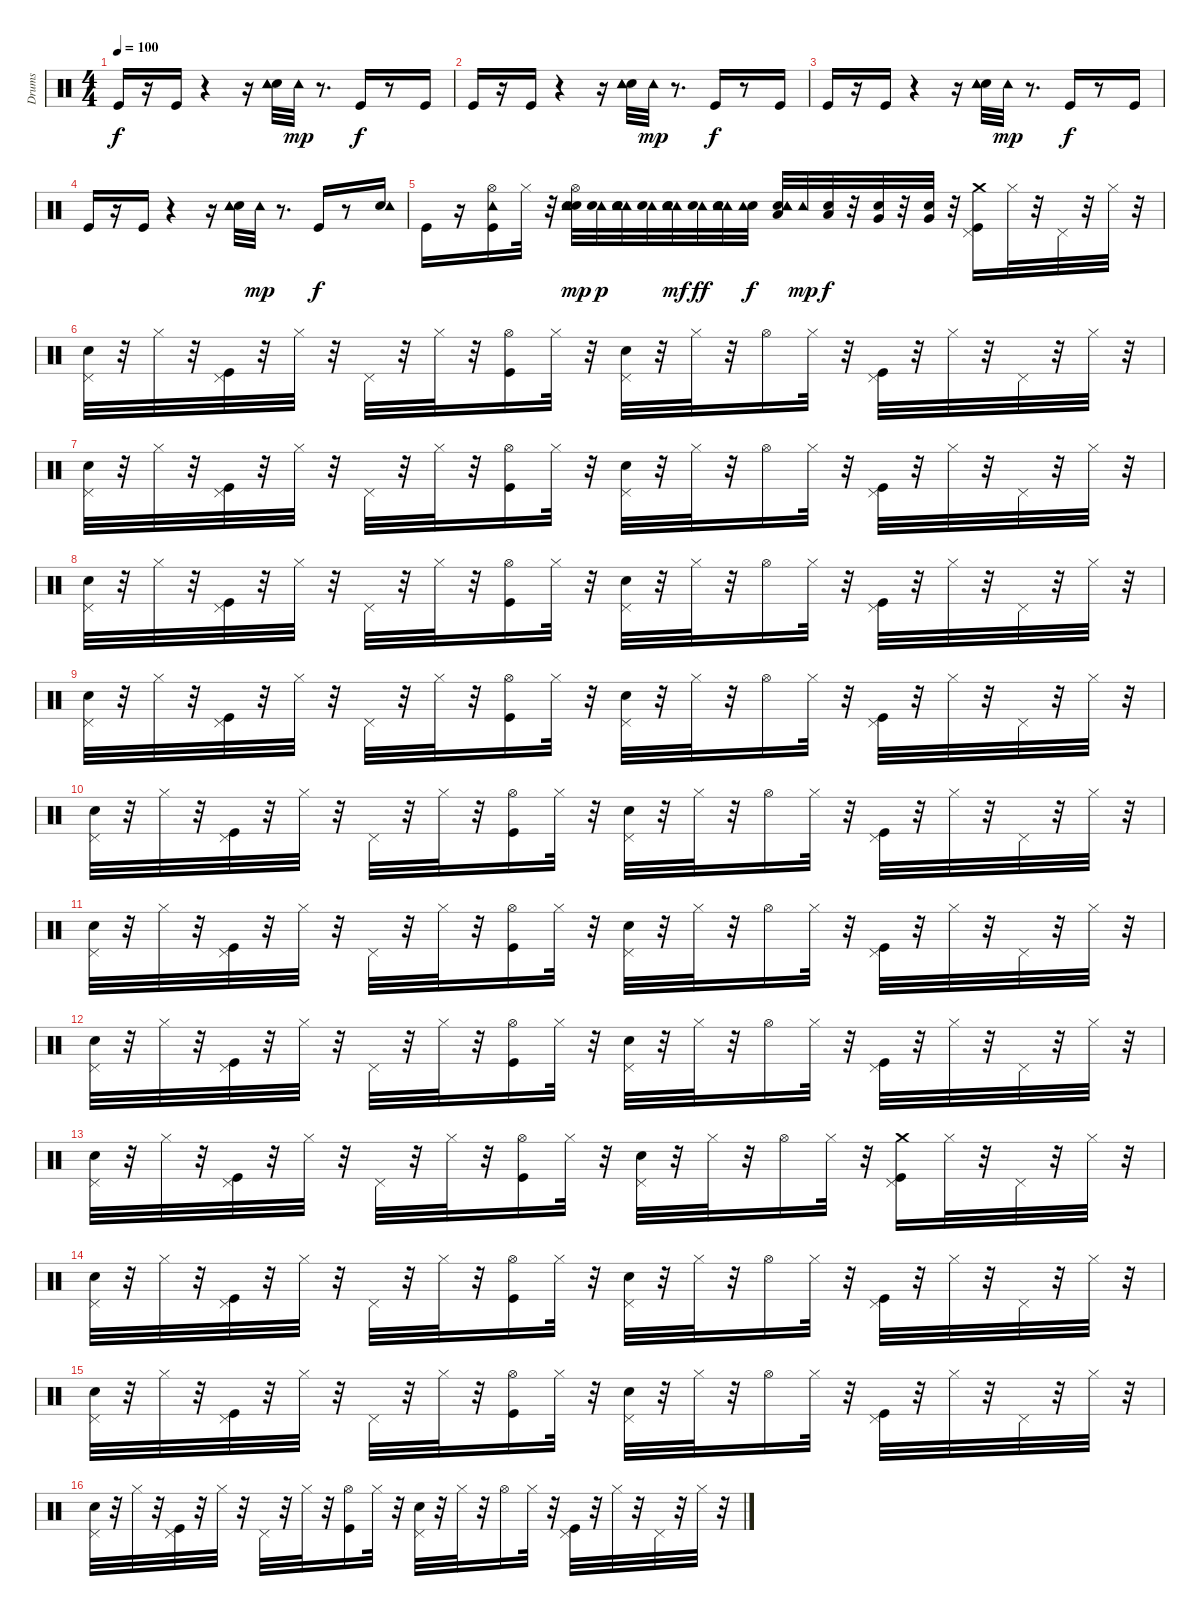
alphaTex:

\track ("Drums" "Drums") {instrument percussion}
\staff {score}
\articulation defaults
\ts (4 4)
\tempo 100
\clef neutral
\ks c "Kick (hit)".16{dy f}
r.16 "Kick (hit)".16 r.4 r.16 ("Metronome (bell)" "Tambourine (hit)" "Tambourine (hit)").32 "Tambourine (hit)".32{dy mp} r.8{d} "Kick (hit)".16{dy f} r.8 "Kick (hit)".16 |
"Kick (hit)".16 r.16 "Kick (hit)".16 r.4 r.16 ("Metronome (bell)" "Tambourine (hit)" "Tambourine (hit)").32 "Tambourine (hit)".32{dy mp} r.8{d} "Kick (hit)".16{dy f} r.8 "Kick (hit)".16 |
"Kick (hit)".16 r.16 "Kick (hit)".16 r.4 r.16 ("Metronome (bell)" "Tambourine (hit)" "Tambourine (hit)").32 "Tambourine (hit)".32{dy mp} r.8{d} "Kick (hit)".16{dy f} r.8 "Kick (hit)".16 |
"Kick (hit)".16 r.16 "Kick (hit)".16 r.4 r.16 ("Metronome (bell)" "Tambourine (hit)" "Tambourine (hit)").32 "Tambourine (hit)".32{dy mp} r.8{d} "Kick (hit)".16{dy f} r.8 ("Metronome (bell)" "Tambourine (hit)").16 |
"Kick (hit)".16 r.16 ("Hi-Hat (open)" "Kick (hit)" "Tambourine (hit)").16 "Hi-Hat (closed)".32 r.32 ("Snare (hit) 2" "Tambourine (hit)" "Hi-Hat (open)" "Tambourine (hit)" "Snare (hit) 2").32{dy mp} ("Tambourine (hit)" "Snare (hit) 2").32{dy p} ("Tambourine (hit)" "Snare (hit) 2" "Tambourine (hit)" "Snare (hit) 2").32 ("Tambourine (hit)" "Snare (hit) 2").32 ("Tambourine (hit)" "Snare (hit) 2" "Tambourine (hit)" "Snare (hit) 2").32{dy mf} ("Tambourine (hit)" "Snare (hit) 2").32{dy ff} ("Tambourine (hit)" "Snare (hit) 2" "Snare (hit) 2" "Tambourine (hit)").32 ("Snare (hit) 2" "Tambourine (hit)").32{dy f} ("Metronome (bell)" "Tambourine (hit)" "Low Tom (hit)" "Tambourine (hit)").32 "Tambourine (hit)".32{dy mp} ("Metronome (bell)" "Low Tom (hit)").32{dy f} r.32 ("Snare (hit) 2" "Very Low Tom (hit)").32 r.32 ("Very Low Tom (hit)" "Snare (hit) 2").32 r.32 ("Pedal Hi-Hat (hit)" "Kick (hit)" "Crash medium (hit)").16 "Hi-Hat (closed)".32 r.32 "Pedal Hi-Hat (hit)".32 r.32 "Hi-Hat (closed)".32 r.32 |
("Metronome (bell)" "Pedal Hi-Hat (hit)").32 r.32 "Hi-Hat (closed)".32 r.32 ("Kick (hit)" "Pedal Hi-Hat (hit)").32 r.32 "Hi-Hat (closed)".32 r.32 "Pedal Hi-Hat (hit)".32 r.32 "Hi-Hat (closed)".32 r.32 ("Kick (hit)" "Hi-Hat (open)").16 "Hi-Hat (closed)".32 r.32 ("Metronome (bell)" "Pedal Hi-Hat (hit)").32 r.32 "Hi-Hat (closed)".32 r.32 "Hi-Hat (open)".16 "Hi-Hat (closed)".32 r.32 ("Pedal Hi-Hat (hit)" "Kick (hit)").32 r.32 "Hi-Hat (closed)".32 r.32 "Pedal Hi-Hat (hit)".32 r.32 "Hi-Hat (closed)".32 r.32 |
("Metronome (bell)" "Pedal Hi-Hat (hit)").32 r.32 "Hi-Hat (closed)".32 r.32 ("Pedal Hi-Hat (hit)" "Kick (hit)").32 r.32 "Hi-Hat (closed)".32 r.32 "Pedal Hi-Hat (hit)".32 r.32 "Hi-Hat (closed)".32 r.32 ("Kick (hit)" "Hi-Hat (open)").16 "Hi-Hat (closed)".32 r.32 ("Metronome (bell)" "Pedal Hi-Hat (hit)").32 r.32 "Hi-Hat (closed)".32 r.32 "Hi-Hat (open)".16 "Hi-Hat (closed)".32 r.32 ("Pedal Hi-Hat (hit)" "Kick (hit)").32 r.32 "Hi-Hat (closed)".32 r.32 "Pedal Hi-Hat (hit)".32 r.32 "Hi-Hat (closed)".32 r.32 |
("Metronome (bell)" "Pedal Hi-Hat (hit)").32 r.32 "Hi-Hat (closed)".32 r.32 ("Kick (hit)" "Pedal Hi-Hat (hit)").32 r.32 "Hi-Hat (closed)".32 r.32 "Pedal Hi-Hat (hit)".32 r.32 "Hi-Hat (closed)".32 r.32 ("Kick (hit)" "Hi-Hat (open)").16 "Hi-Hat (closed)".32 r.32 ("Pedal Hi-Hat (hit)" "Metronome (bell)").32 r.32 "Hi-Hat (closed)".32 r.32 "Hi-Hat (open)".16 "Hi-Hat (closed)".32 r.32 ("Pedal Hi-Hat (hit)" "Kick (hit)").32 r.32 "Hi-Hat (closed)".32 r.32 "Pedal Hi-Hat (hit)".32 r.32 "Hi-Hat (closed)".32 r.32 |
("Pedal Hi-Hat (hit)" "Metronome (bell)").32 r.32 "Hi-Hat (closed)".32 r.32 ("Kick (hit)" "Pedal Hi-Hat (hit)").32 r.32 "Hi-Hat (closed)".32 r.32 "Pedal Hi-Hat (hit)".32 r.32 "Hi-Hat (closed)".32 r.32 ("Hi-Hat (open)" "Kick (hit)").16 "Hi-Hat (closed)".32 r.32 ("Pedal Hi-Hat (hit)" "Metronome (bell)").32 r.32 "Hi-Hat (closed)".32 r.32 "Hi-Hat (open)".16 "Hi-Hat (closed)".32 r.32 ("Pedal Hi-Hat (hit)" "Kick (hit)").32 r.32 "Hi-Hat (closed)".32 r.32 "Pedal Hi-Hat (hit)".32 r.32 "Hi-Hat (closed)".32 r.32 |
("Metronome (bell)" "Pedal Hi-Hat (hit)").32 r.32 "Hi-Hat (closed)".32 r.32 ("Kick (hit)" "Pedal Hi-Hat (hit)").32 r.32 "Hi-Hat (closed)".32 r.32 "Pedal Hi-Hat (hit)".32 r.32 "Hi-Hat (closed)".32 r.32 ("Kick (hit)" "Hi-Hat (open)").16 "Hi-Hat (closed)".32 r.32 ("Metronome (bell)" "Pedal Hi-Hat (hit)").32 r.32 "Hi-Hat (closed)".32 r.32 "Hi-Hat (open)".16 "Hi-Hat (closed)".32 r.32 ("Pedal Hi-Hat (hit)" "Kick (hit)").32 r.32 "Hi-Hat (closed)".32 r.32 "Pedal Hi-Hat (hit)".32 r.32 "Hi-Hat (closed)".32 r.32 |
("Metronome (bell)" "Pedal Hi-Hat (hit)").32 r.32 "Hi-Hat (closed)".32 r.32 ("Pedal Hi-Hat (hit)" "Kick (hit)").32 r.32 "Hi-Hat (closed)".32 r.32 "Pedal Hi-Hat (hit)".32 r.32 "Hi-Hat (closed)".32 r.32 ("Kick (hit)" "Hi-Hat (open)").16 "Hi-Hat (closed)".32 r.32 ("Pedal Hi-Hat (hit)" "Metronome (bell)").32 r.32 "Hi-Hat (closed)".32 r.32 "Hi-Hat (open)".16 "Hi-Hat (closed)".32 r.32 ("Kick (hit)" "Pedal Hi-Hat (hit)").32 r.32 "Hi-Hat (closed)".32 r.32 "Pedal Hi-Hat (hit)".32 r.32 "Hi-Hat (closed)".32 r.32 |
("Metronome (bell)" "Pedal Hi-Hat (hit)").32 r.32 "Hi-Hat (closed)".32 r.32 ("Pedal Hi-Hat (hit)" "Kick (hit)").32 r.32 "Hi-Hat (closed)".32 r.32 "Pedal Hi-Hat (hit)".32 r.32 "Hi-Hat (closed)".32 r.32 ("Kick (hit)" "Hi-Hat (open)").16 "Hi-Hat (closed)".32 r.32 ("Metronome (bell)" "Pedal Hi-Hat (hit)").32 r.32 "Hi-Hat (closed)".32 r.32 "Hi-Hat (open)".16 "Hi-Hat (closed)".32 r.32 ("Pedal Hi-Hat (hit)" "Kick (hit)").32 r.32 "Hi-Hat (closed)".32 r.32 "Pedal Hi-Hat (hit)".32 r.32 "Hi-Hat (closed)".32 r.32 |
("Pedal Hi-Hat (hit)" "Metronome (bell)").32 r.32 "Hi-Hat (closed)".32 r.32 ("Kick (hit)" "Pedal Hi-Hat (hit)").32 r.32 "Hi-Hat (closed)".32 r.32 "Pedal Hi-Hat (hit)".32 r.32 "Hi-Hat (closed)".32 r.32 ("Kick (hit)" "Hi-Hat (open)").16 "Hi-Hat (closed)".32 r.32 ("Pedal Hi-Hat (hit)" "Metronome (bell)").32 r.32 "Hi-Hat (closed)".32 r.32 "Hi-Hat (open)".16 "Hi-Hat (closed)".32 r.32 ("Kick (hit)" "Crash medium (hit)" "Pedal Hi-Hat (hit)").16 "Hi-Hat (closed)".32 r.32 "Pedal Hi-Hat (hit)".32 r.32 "Hi-Hat (closed)".32 r.32 |
("Metronome (bell)" "Pedal Hi-Hat (hit)").32 r.32 "Hi-Hat (closed)".32 r.32 ("Pedal Hi-Hat (hit)" "Kick (hit)").32 r.32 "Hi-Hat (closed)".32 r.32 "Pedal Hi-Hat (hit)".32 r.32 "Hi-Hat (closed)".32 r.32 ("Kick (hit)" "Hi-Hat (open)").16 "Hi-Hat (closed)".32 r.32 ("Pedal Hi-Hat (hit)" "Metronome (bell)").32 r.32 "Hi-Hat (closed)".32 r.32 "Hi-Hat (open)".16 "Hi-Hat (closed)".32 r.32 ("Pedal Hi-Hat (hit)" "Kick (hit)").32 r.32 "Hi-Hat (closed)".32 r.32 "Pedal Hi-Hat (hit)".32 r.32 "Hi-Hat (closed)".32 r.32 |
("Pedal Hi-Hat (hit)" "Metronome (bell)").32 r.32 "Hi-Hat (closed)".32 r.32 ("Kick (hit)" "Pedal Hi-Hat (hit)").32 r.32 "Hi-Hat (closed)".32 r.32 "Pedal Hi-Hat (hit)".32 r.32 "Hi-Hat (closed)".32 r.32 ("Kick (hit)" "Hi-Hat (open)").16 "Hi-Hat (closed)".32 r.32 ("Metronome (bell)" "Pedal Hi-Hat (hit)").32 r.32 "Hi-Hat (closed)".32 r.32 "Hi-Hat (open)".16 "Hi-Hat (closed)".32 r.32 ("Kick (hit)" "Pedal Hi-Hat (hit)").32 r.32 "Hi-Hat (closed)".32 r.32 "Pedal Hi-Hat (hit)".32 r.32 "Hi-Hat (closed)".32 r.32 |
("Metronome (bell)" "Pedal Hi-Hat (hit)").32 r.32 "Hi-Hat (closed)".32 r.32 ("Pedal Hi-Hat (hit)" "Kick (hit)").32 r.32 "Hi-Hat (closed)".32 r.32 "Pedal Hi-Hat (hit)".32 r.32 "Hi-Hat (closed)".32 r.32 ("Hi-Hat (open)" "Kick (hit)").16 "Hi-Hat (closed)".32 r.32 ("Pedal Hi-Hat (hit)" "Metronome (bell)").32 r.32 "Hi-Hat (closed)".32 r.32 "Hi-Hat (open)".16 "Hi-Hat (closed)".32 r.32 ("Pedal Hi-Hat (hit)" "Kick (hit)").32 r.32 "Hi-Hat (closed)".32 r.32 "Pedal Hi-Hat (hit)".32 r.32 "Hi-Hat (closed)".32 r.32
